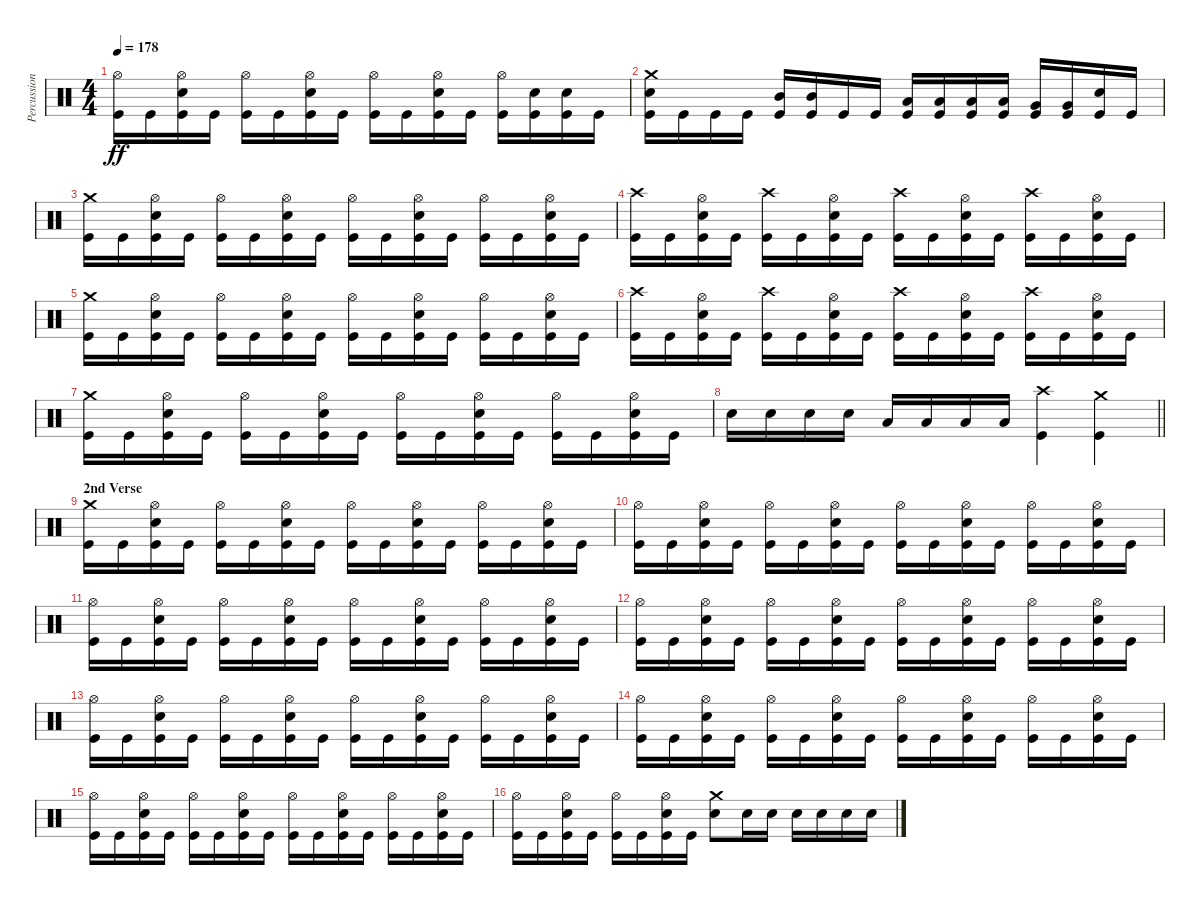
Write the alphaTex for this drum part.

\track ("Percussion" "Percussion") {instrument percussion}
\staff {score}
\articulation defaults
\ts (4 4)
\tempo 178
\clef neutral
\ks c
("Hi-Hat (open)" "Kick (hit)").16{dy ff} "Kick (hit)".16 ("Hi-Hat (open)" "Snare (hit) 2" "Kick (hit)").16 "Kick (hit)".16 ("Hi-Hat (open)" "Kick (hit)").16 "Kick (hit)".16 ("Hi-Hat (open)" "Snare (hit) 2" "Kick (hit)").16 "Kick (hit)".16 ("Hi-Hat (open)" "Kick (hit)").16 "Kick (hit)".16 ("Hi-Hat (open)" "Snare (hit) 2" "Kick (hit)").16 "Kick (hit)".16 ("Hi-Hat (open)" "Kick (hit)").16 ("Snare (hit) 2" "Kick (hit)").16 ("Snare (hit) 2" "Kick (hit)").16 "Kick (hit)".16 |
("Crash medium (hit)" "Snare (hit) 2" "Kick (hit)").16 "Kick (hit)".16 "Kick (hit)".16 "Kick (hit)".16 ("Mid Tom (hit)" "Kick (hit)").16 ("Mid Tom (hit)" "Kick (hit)").16 "Kick (hit)".16 "Kick (hit)".16 ("Low Tom (hit)" "Kick (hit)").16 ("Low Tom (hit)" "Kick (hit)").16 ("Low Tom (hit)" "Kick (hit)").16 ("Low Tom (hit)" "Kick (hit)").16 ("Very Low Tom (hit)" "Kick (hit)").16 ("Very Low Tom (hit)" "Kick (hit)").16 ("Snare (hit) 2" "Kick (hit)").16 "Kick (hit)".16 |
("Crash medium (hit)" "Kick (hit)").16 "Kick (hit)".16 ("Hi-Hat (open)" "Snare (hit) 2" "Kick (hit)").16 "Kick (hit)".16 ("Hi-Hat (open)" "Kick (hit)").16 "Kick (hit)".16 ("Hi-Hat (open)" "Snare (hit) 2" "Kick (hit)").16 "Kick (hit)".16 ("Hi-Hat (open)" "Kick (hit)").16 "Kick (hit)".16 ("Hi-Hat (open)" "Snare (hit) 2" "Kick (hit)").16 "Kick (hit)".16 ("Hi-Hat (open)" "Kick (hit)").16 "Kick (hit)".16 ("Hi-Hat (open)" "Snare (hit) 2" "Kick (hit)").16 "Kick (hit)".16 |
("Crash high (hit)" "Kick (hit)").16 "Kick (hit)".16 ("Hi-Hat (open)" "Snare (hit) 2" "Kick (hit)").16 "Kick (hit)".16 ("Crash high (hit)" "Kick (hit)").16 "Kick (hit)".16 ("Hi-Hat (open)" "Snare (hit) 2" "Kick (hit)").16 "Kick (hit)".16 ("Crash high (hit)" "Kick (hit)").16 "Kick (hit)".16 ("Hi-Hat (open)" "Snare (hit) 2" "Kick (hit)").16 "Kick (hit)".16 ("Crash high (hit)" "Kick (hit)").16 "Kick (hit)".16 ("Hi-Hat (open)" "Snare (hit) 2" "Kick (hit)").16 "Kick (hit)".16 |
("Crash medium (hit)" "Kick (hit)").16 "Kick (hit)".16 ("Hi-Hat (open)" "Snare (hit) 2" "Kick (hit)").16 "Kick (hit)".16 ("Hi-Hat (open)" "Kick (hit)").16 "Kick (hit)".16 ("Hi-Hat (open)" "Snare (hit) 2" "Kick (hit)").16 "Kick (hit)".16 ("Hi-Hat (open)" "Kick (hit)").16 "Kick (hit)".16 ("Hi-Hat (open)" "Snare (hit) 2" "Kick (hit)").16 "Kick (hit)".16 ("Hi-Hat (open)" "Kick (hit)").16 "Kick (hit)".16 ("Hi-Hat (open)" "Snare (hit) 2" "Kick (hit)").16 "Kick (hit)".16 |
("Crash high (hit)" "Kick (hit)").16 "Kick (hit)".16 ("Hi-Hat (open)" "Snare (hit) 2" "Kick (hit)").16 "Kick (hit)".16 ("Crash high (hit)" "Kick (hit)").16 "Kick (hit)".16 ("Hi-Hat (open)" "Snare (hit) 2" "Kick (hit)").16 "Kick (hit)".16 ("Crash high (hit)" "Kick (hit)").16 "Kick (hit)".16 ("Hi-Hat (open)" "Snare (hit) 2" "Kick (hit)").16 "Kick (hit)".16 ("Crash high (hit)" "Kick (hit)").16 "Kick (hit)".16 ("Hi-Hat (open)" "Snare (hit) 2" "Kick (hit)").16 "Kick (hit)".16 |
("Crash medium (hit)" "Kick (hit)").16 "Kick (hit)".16 ("Hi-Hat (open)" "Snare (hit) 2" "Kick (hit)").16 "Kick (hit)".16 ("Hi-Hat (open)" "Kick (hit)").16 "Kick (hit)".16 ("Hi-Hat (open)" "Snare (hit) 2" "Kick (hit)").16 "Kick (hit)".16 ("Hi-Hat (open)" "Kick (hit)").16 "Kick (hit)".16 ("Hi-Hat (open)" "Snare (hit) 2" "Kick (hit)").16 "Kick (hit)".16 ("Hi-Hat (open)" "Kick (hit)").16 "Kick (hit)".16 ("Hi-Hat (open)" "Snare (hit) 2" "Kick (hit)").16 "Kick (hit)".16 |
\barLineRight lightlight "Snare (hit) 2".16 "Snare (hit) 2".16 "Snare (hit) 2".16 "Snare (hit) 2".16 "Low Tom (hit)".16 "Low Tom (hit)".16 "Low Tom (hit)".16 "Low Tom (hit)".16
("Crash high (hit)" "Kick (hit)").4 ("Crash medium (hit)" "Kick (hit)").4 |
\section ("" "2nd Verse")
("Crash medium (hit)" "Kick (hit)").16 "Kick (hit)".16 ("Hi-Hat (open)" "Snare (hit) 2" "Kick (hit)").16 "Kick (hit)".16 ("Hi-Hat (open)" "Kick (hit)").16 "Kick (hit)".16 ("Hi-Hat (open)" "Snare (hit) 2" "Kick (hit)").16 "Kick (hit)".16 ("Hi-Hat (open)" "Kick (hit)").16 "Kick (hit)".16 ("Hi-Hat (open)" "Snare (hit) 2" "Kick (hit)").16 "Kick (hit)".16 ("Hi-Hat (open)" "Kick (hit)").16 "Kick (hit)".16 ("Hi-Hat (open)" "Snare (hit) 2" "Kick (hit)").16 "Kick (hit)".16 |
("Hi-Hat (open)" "Kick (hit)").16 "Kick (hit)".16 ("Hi-Hat (open)" "Snare (hit) 2" "Kick (hit)").16 "Kick (hit)".16 ("Hi-Hat (open)" "Kick (hit)").16 "Kick (hit)".16 ("Hi-Hat (open)" "Snare (hit) 2" "Kick (hit)").16 "Kick (hit)".16 ("Hi-Hat (open)" "Kick (hit)").16 "Kick (hit)".16 ("Hi-Hat (open)" "Snare (hit) 2" "Kick (hit)").16 "Kick (hit)".16 ("Hi-Hat (open)" "Kick (hit)").16 "Kick (hit)".16 ("Hi-Hat (open)" "Snare (hit) 2" "Kick (hit)").16 "Kick (hit)".16 |
("Hi-Hat (open)" "Kick (hit)").16 "Kick (hit)".16 ("Hi-Hat (open)" "Snare (hit) 2" "Kick (hit)").16 "Kick (hit)".16 ("Hi-Hat (open)" "Kick (hit)").16 "Kick (hit)".16 ("Hi-Hat (open)" "Snare (hit) 2" "Kick (hit)").16 "Kick (hit)".16 ("Hi-Hat (open)" "Kick (hit)").16 "Kick (hit)".16 ("Hi-Hat (open)" "Snare (hit) 2" "Kick (hit)").16 "Kick (hit)".16 ("Hi-Hat (open)" "Kick (hit)").16 "Kick (hit)".16 ("Hi-Hat (open)" "Snare (hit) 2" "Kick (hit)").16 "Kick (hit)".16 |
("Hi-Hat (open)" "Kick (hit)").16 "Kick (hit)".16 ("Hi-Hat (open)" "Snare (hit) 2" "Kick (hit)").16 "Kick (hit)".16 ("Hi-Hat (open)" "Kick (hit)").16 "Kick (hit)".16 ("Hi-Hat (open)" "Snare (hit) 2" "Kick (hit)").16 "Kick (hit)".16 ("Hi-Hat (open)" "Kick (hit)").16 "Kick (hit)".16 ("Hi-Hat (open)" "Snare (hit) 2" "Kick (hit)").16 "Kick (hit)".16 ("Hi-Hat (open)" "Kick (hit)").16 "Kick (hit)".16 ("Hi-Hat (open)" "Snare (hit) 2" "Kick (hit)").16 "Kick (hit)".16 |
("Hi-Hat (open)" "Kick (hit)").16 "Kick (hit)".16 ("Hi-Hat (open)" "Snare (hit) 2" "Kick (hit)").16 "Kick (hit)".16 ("Hi-Hat (open)" "Kick (hit)").16 "Kick (hit)".16 ("Hi-Hat (open)" "Snare (hit) 2" "Kick (hit)").16 "Kick (hit)".16 ("Hi-Hat (open)" "Kick (hit)").16 "Kick (hit)".16 ("Hi-Hat (open)" "Snare (hit) 2" "Kick (hit)").16 "Kick (hit)".16 ("Hi-Hat (open)" "Kick (hit)").16 "Kick (hit)".16 ("Hi-Hat (open)" "Snare (hit) 2" "Kick (hit)").16 "Kick (hit)".16 |
("Hi-Hat (open)" "Kick (hit)").16 "Kick (hit)".16 ("Hi-Hat (open)" "Snare (hit) 2" "Kick (hit)").16 "Kick (hit)".16 ("Hi-Hat (open)" "Kick (hit)").16 "Kick (hit)".16 ("Hi-Hat (open)" "Snare (hit) 2" "Kick (hit)").16 "Kick (hit)".16 ("Hi-Hat (open)" "Kick (hit)").16 "Kick (hit)".16 ("Hi-Hat (open)" "Snare (hit) 2" "Kick (hit)").16 "Kick (hit)".16 ("Hi-Hat (open)" "Kick (hit)").16 "Kick (hit)".16 ("Hi-Hat (open)" "Snare (hit) 2" "Kick (hit)").16 "Kick (hit)".16 |
("Hi-Hat (open)" "Kick (hit)").16 "Kick (hit)".16 ("Hi-Hat (open)" "Snare (hit) 2" "Kick (hit)").16 "Kick (hit)".16 ("Hi-Hat (open)" "Kick (hit)").16 "Kick (hit)".16 ("Hi-Hat (open)" "Snare (hit) 2" "Kick (hit)").16 "Kick (hit)".16 ("Hi-Hat (open)" "Kick (hit)").16 "Kick (hit)".16 ("Hi-Hat (open)" "Snare (hit) 2" "Kick (hit)").16 "Kick (hit)".16 ("Hi-Hat (open)" "Kick (hit)").16 "Kick (hit)".16 ("Hi-Hat (open)" "Snare (hit) 2" "Kick (hit)").16 "Kick (hit)".16 |
("Hi-Hat (open)" "Kick (hit)").16 "Kick (hit)".16 ("Hi-Hat (open)" "Snare (hit) 2" "Kick (hit)").16 "Kick (hit)".16 ("Hi-Hat (open)" "Kick (hit)").16 "Kick (hit)".16 ("Hi-Hat (open)" "Snare (hit) 2" "Kick (hit)").16 "Kick (hit)".16 ("Crash medium (hit)" "Snare (hit) 2").8 "Snare (hit) 2".16 "Snare (hit) 2".16 "Snare (hit) 2".16 "Snare (hit) 2".16 "Snare (hit) 2".16 "Snare (hit) 2".16
